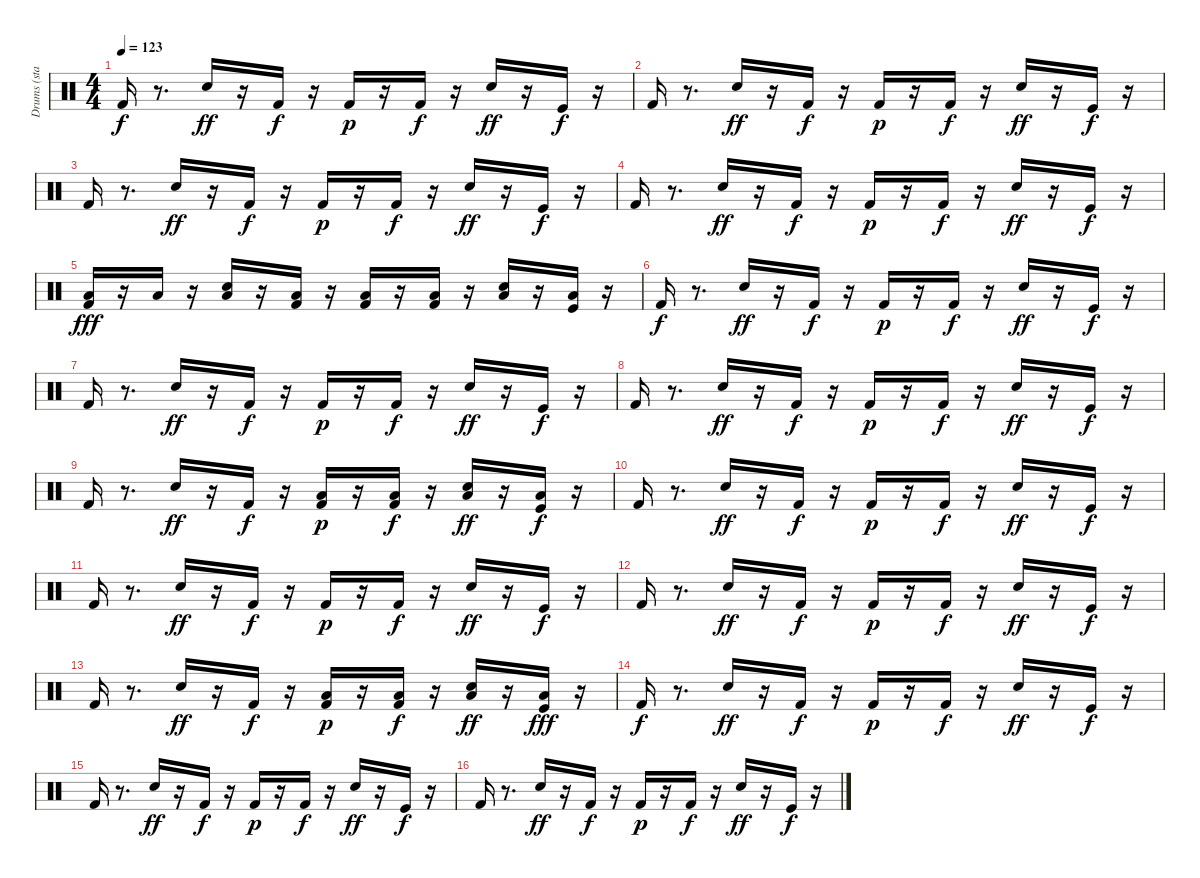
\track ("Drums (standard set)" "Drums (sta") {instrument percussion}
\staff {score}
\articulation defaults
\ts (4 4)
\tempo 123
\clef neutral
\ks c "Kick (hit) 2".16{dy f}
r.8{d} "Snare (hit) 2".16{dy ff} r.16 "Kick (hit) 2".16{dy f} r.16 "Kick (hit) 2".16{dy p} r.16 "Kick (hit) 2".16{dy f} r.16 "Snare (hit) 2".16{dy ff} r.16 "Kick (hit)".16{dy f} r.16 |
"Kick (hit) 2".16 r.8{d} "Snare (hit) 2".16{dy ff} r.16 "Kick (hit) 2".16{dy f} r.16 "Kick (hit) 2".16{dy p} r.16 "Kick (hit) 2".16{dy f} r.16 "Snare (hit) 2".16{dy ff} r.16 "Kick (hit)".16{dy f} r.16 |
"Kick (hit) 2".16 r.8{d} "Snare (hit) 2".16{dy ff} r.16 "Kick (hit) 2".16{dy f} r.16 "Kick (hit) 2".16{dy p} r.16 "Kick (hit) 2".16{dy f} r.16 "Snare (hit) 2".16{dy ff} r.16 "Kick (hit)".16{dy f} r.16 |
"Kick (hit) 2".16 r.8{d} "Snare (hit) 2".16{dy ff} r.16 "Kick (hit) 2".16{dy f} r.16 "Kick (hit) 2".16{dy p} r.16 "Kick (hit) 2".16{dy f} r.16 "Snare (hit) 2".16{dy ff} r.16 "Kick (hit)".16{dy f} r.16 |
("Kick (hit) 2" "Low Tom (hit)").16{dy fff} r.16 "Low Tom (hit)".16 r.16 ("Snare (hit) 2" "Low Tom (hit)").16 r.16 ("Kick (hit) 2" "Low Tom (hit)").16 r.16 ("Kick (hit) 2" "Low Tom (hit)").16 r.16 ("Kick (hit) 2" "Low Tom (hit)").16 r.16 ("Snare (hit) 2" "Low Tom (hit)").16 r.16 ("Kick (hit)" "Low Tom (hit)").16 r.16 |
"Kick (hit) 2".16{dy f} r.8{d} "Snare (hit) 2".16{dy ff} r.16 "Kick (hit) 2".16{dy f} r.16 "Kick (hit) 2".16{dy p} r.16 "Kick (hit) 2".16{dy f} r.16 "Snare (hit) 2".16{dy ff} r.16 "Kick (hit)".16{dy f} r.16 |
"Kick (hit) 2".16 r.8{d} "Snare (hit) 2".16{dy ff} r.16 "Kick (hit) 2".16{dy f} r.16 "Kick (hit) 2".16{dy p} r.16 "Kick (hit) 2".16{dy f} r.16 "Snare (hit) 2".16{dy ff} r.16 "Kick (hit)".16{dy f} r.16 |
"Kick (hit) 2".16 r.8{d} "Snare (hit) 2".16{dy ff} r.16 "Kick (hit) 2".16{dy f} r.16 "Kick (hit) 2".16{dy p} r.16 "Kick (hit) 2".16{dy f} r.16 "Snare (hit) 2".16{dy ff} r.16 "Kick (hit)".16{dy f} r.16 |
"Kick (hit) 2".16 r.8{d} "Snare (hit) 2".16{dy ff} r.16 "Kick (hit) 2".16{dy f} r.16 ("Kick (hit) 2" "Low Tom (hit)").16{dy p} r.16 ("Kick (hit) 2" "Low Tom (hit)").16{dy f} r.16 ("Snare (hit) 2" "Low Tom (hit)").16{dy ff} r.16 ("Kick (hit)" "Low Tom (hit)").16{dy f} r.16 |
"Kick (hit) 2".16 r.8{d} "Snare (hit) 2".16{dy ff} r.16 "Kick (hit) 2".16{dy f} r.16 "Kick (hit) 2".16{dy p} r.16 "Kick (hit) 2".16{dy f} r.16 "Snare (hit) 2".16{dy ff} r.16 "Kick (hit)".16{dy f} r.16 |
"Kick (hit) 2".16 r.8{d} "Snare (hit) 2".16{dy ff} r.16 "Kick (hit) 2".16{dy f} r.16 "Kick (hit) 2".16{dy p} r.16 "Kick (hit) 2".16{dy f} r.16 "Snare (hit) 2".16{dy ff} r.16 "Kick (hit)".16{dy f} r.16 |
"Kick (hit) 2".16 r.8{d} "Snare (hit) 2".16{dy ff} r.16 "Kick (hit) 2".16{dy f} r.16 "Kick (hit) 2".16{dy p} r.16 "Kick (hit) 2".16{dy f} r.16 "Snare (hit) 2".16{dy ff} r.16 "Kick (hit)".16{dy f} r.16 |
"Kick (hit) 2".16 r.8{d} "Snare (hit) 2".16{dy ff} r.16 "Kick (hit) 2".16{dy f} r.16 ("Kick (hit) 2" "Low Tom (hit)").16{dy p} r.16 ("Kick (hit) 2" "Low Tom (hit)").16{dy f} r.16 ("Snare (hit) 2" "Low Tom (hit)").16{dy ff} r.16 ("Kick (hit)" "Low Tom (hit)").16{dy fff} r.16 |
"Kick (hit) 2".16{dy f} r.8{d} "Snare (hit) 2".16{dy ff} r.16 "Kick (hit) 2".16{dy f} r.16 "Kick (hit) 2".16{dy p} r.16 "Kick (hit) 2".16{dy f} r.16 "Snare (hit) 2".16{dy ff} r.16 "Kick (hit)".16{dy f} r.16 |
"Kick (hit) 2".16 r.8{d} "Snare (hit) 2".16{dy ff} r.16 "Kick (hit) 2".16{dy f} r.16 "Kick (hit) 2".16{dy p} r.16 "Kick (hit) 2".16{dy f} r.16 "Snare (hit) 2".16{dy ff} r.16 "Kick (hit)".16{dy f} r.16 |
"Kick (hit) 2".16 r.8{d} "Snare (hit) 2".16{dy ff} r.16 "Kick (hit) 2".16{dy f} r.16 "Kick (hit) 2".16{dy p} r.16 "Kick (hit) 2".16{dy f} r.16 "Snare (hit) 2".16{dy ff} r.16 "Kick (hit)".16{dy f} r.16
